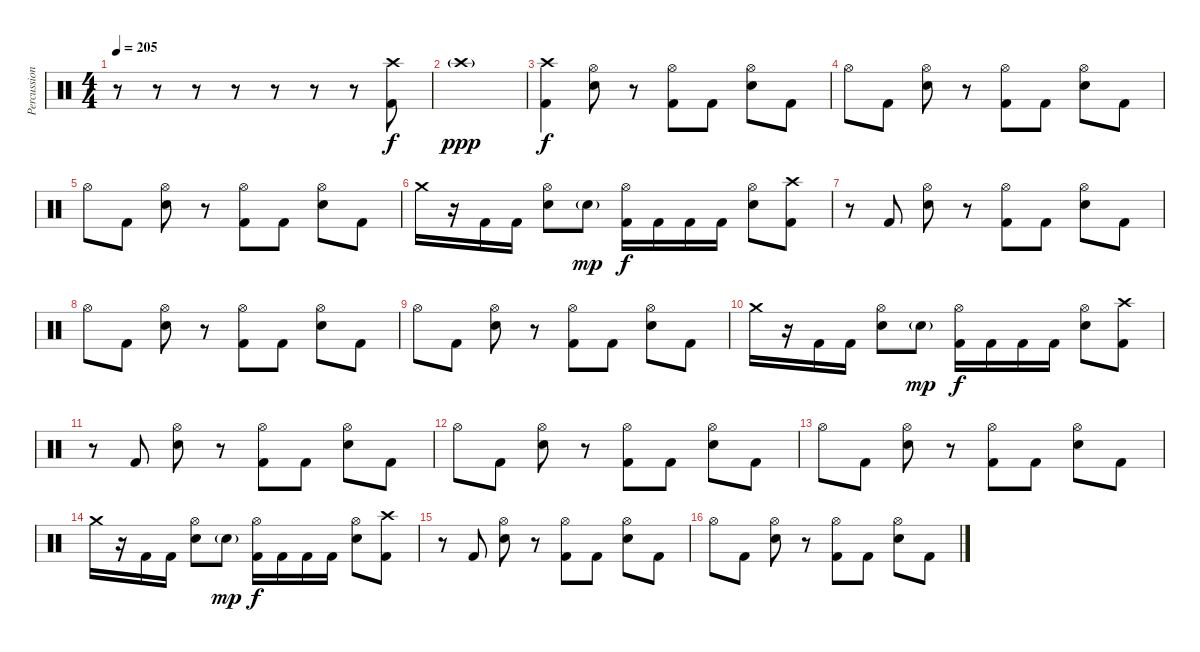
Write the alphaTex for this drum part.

\track ("Percussion" "Percussion") {instrument percussion}
\staff {score}
\articulation defaults
\ts (4 4)
\tempo 205
\clef neutral
\ks c
r.8{dy f} r.8 r.8 r.8 r.8 r.8 r.8 ("Crash high (hit)" "Kick (hit) 2").8 |
"Crash high (hit)"{g}.1{dy ppp} |
("Crash high (hit)" "Kick (hit) 2").4{dy f} ("Hi-Hat (open)" "Electric Snare (hit)").8 r.8 ("Hi-Hat (open)" "Kick (hit) 2").8 "Kick (hit) 2".8 ("Hi-Hat (open)" "Electric Snare (hit)").8 "Kick (hit) 2".8 |
"Hi-Hat (open)".8 "Kick (hit) 2".8 ("Hi-Hat (open)" "Electric Snare (hit)").8 r.8 ("Hi-Hat (open)" "Kick (hit) 2").8 "Kick (hit) 2".8 ("Hi-Hat (open)" "Electric Snare (hit)").8 "Kick (hit) 2".8 |
"Hi-Hat (open)".8 "Kick (hit) 2".8 ("Hi-Hat (open)" "Electric Snare (hit)").8 r.8 ("Hi-Hat (open)" "Kick (hit) 2").8 "Kick (hit) 2".8 ("Hi-Hat (open)" "Electric Snare (hit)").8 "Kick (hit) 2".8 |
"Crash medium (hit)".16 r.16 "Kick (hit) 2".16 "Kick (hit) 2".16 ("Hi-Hat (open)" "Electric Snare (hit)").8 "Electric Snare (hit)"{g}.8{dy mp} ("Hi-Hat (open)" "Kick (hit) 2").16{dy f} "Kick (hit) 2".16 "Kick (hit) 2".16 "Kick (hit) 2".16 ("Hi-Hat (open)" "Electric Snare (hit)").8 ("Crash high (hit)" "Kick (hit) 2").8 |
r.8 "Kick (hit) 2".8 ("Hi-Hat (open)" "Electric Snare (hit)").8 r.8 ("Hi-Hat (open)" "Kick (hit) 2").8 "Kick (hit) 2".8 ("Hi-Hat (open)" "Electric Snare (hit)").8 "Kick (hit) 2".8 |
"Hi-Hat (open)".8 "Kick (hit) 2".8 ("Hi-Hat (open)" "Electric Snare (hit)").8 r.8 ("Hi-Hat (open)" "Kick (hit) 2").8 "Kick (hit) 2".8 ("Hi-Hat (open)" "Electric Snare (hit)").8 "Kick (hit) 2".8 |
"Hi-Hat (open)".8 "Kick (hit) 2".8 ("Hi-Hat (open)" "Electric Snare (hit)").8 r.8 ("Hi-Hat (open)" "Kick (hit) 2").8 "Kick (hit) 2".8 ("Hi-Hat (open)" "Electric Snare (hit)").8 "Kick (hit) 2".8 |
"Crash medium (hit)".16 r.16 "Kick (hit) 2".16 "Kick (hit) 2".16 ("Hi-Hat (open)" "Electric Snare (hit)").8 "Electric Snare (hit)"{g}.8{dy mp} ("Hi-Hat (open)" "Kick (hit) 2").16{dy f} "Kick (hit) 2".16 "Kick (hit) 2".16 "Kick (hit) 2".16 ("Hi-Hat (open)" "Electric Snare (hit)").8 ("Crash high (hit)" "Kick (hit) 2").8 |
r.8 "Kick (hit) 2".8 ("Hi-Hat (open)" "Electric Snare (hit)").8 r.8 ("Hi-Hat (open)" "Kick (hit) 2").8 "Kick (hit) 2".8 ("Hi-Hat (open)" "Electric Snare (hit)").8 "Kick (hit) 2".8 |
"Hi-Hat (open)".8 "Kick (hit) 2".8 ("Hi-Hat (open)" "Electric Snare (hit)").8 r.8 ("Hi-Hat (open)" "Kick (hit) 2").8 "Kick (hit) 2".8 ("Hi-Hat (open)" "Electric Snare (hit)").8 "Kick (hit) 2".8 |
"Hi-Hat (open)".8 "Kick (hit) 2".8 ("Hi-Hat (open)" "Electric Snare (hit)").8 r.8 ("Hi-Hat (open)" "Kick (hit) 2").8 "Kick (hit) 2".8 ("Hi-Hat (open)" "Electric Snare (hit)").8 "Kick (hit) 2".8 |
"Crash medium (hit)".16 r.16 "Kick (hit) 2".16 "Kick (hit) 2".16 ("Hi-Hat (open)" "Electric Snare (hit)").8 "Electric Snare (hit)"{g}.8{dy mp} ("Hi-Hat (open)" "Kick (hit) 2").16{dy f} "Kick (hit) 2".16 "Kick (hit) 2".16 "Kick (hit) 2".16 ("Hi-Hat (open)" "Electric Snare (hit)").8 ("Crash high (hit)" "Kick (hit) 2").8 |
r.8 "Kick (hit) 2".8 ("Hi-Hat (open)" "Electric Snare (hit)").8 r.8 ("Hi-Hat (open)" "Kick (hit) 2").8 "Kick (hit) 2".8 ("Hi-Hat (open)" "Electric Snare (hit)").8 "Kick (hit) 2".8 |
"Hi-Hat (open)".8 "Kick (hit) 2".8 ("Hi-Hat (open)" "Electric Snare (hit)").8 r.8 ("Hi-Hat (open)" "Kick (hit) 2").8 "Kick (hit) 2".8 ("Hi-Hat (open)" "Electric Snare (hit)").8 "Kick (hit) 2".8
